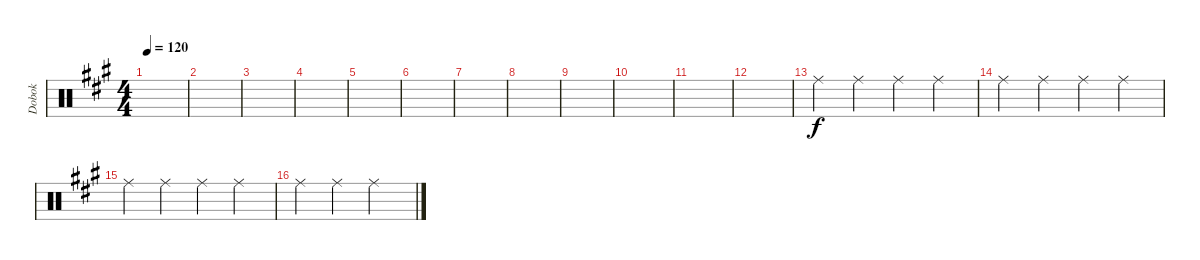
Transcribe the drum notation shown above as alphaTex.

\track ("Dobok" "Dobok") {instrument percussion}
\staff {score}
\articulation defaults
\ts (4 4)
\tempo 120
\clef neutral
\ks a
|
|
|
|
|
|
|
|
|
|
|
|
"Ride (middle)".4{volume 3} "Ride (middle)".4{volume 9} "Ride (middle)".4 "Ride (middle)".4 |
"Ride (middle)".4 "Ride (middle)".4 "Ride (middle)".4{volume 11} "Ride (middle)".4 |
"Ride (middle)".4 "Ride (middle)".4 "Ride (middle)".4{volume 13} "Ride (middle)".4 |
"Ride (middle)".4 "Ride (middle)".4 "Ride (middle)".2{volume 13}
